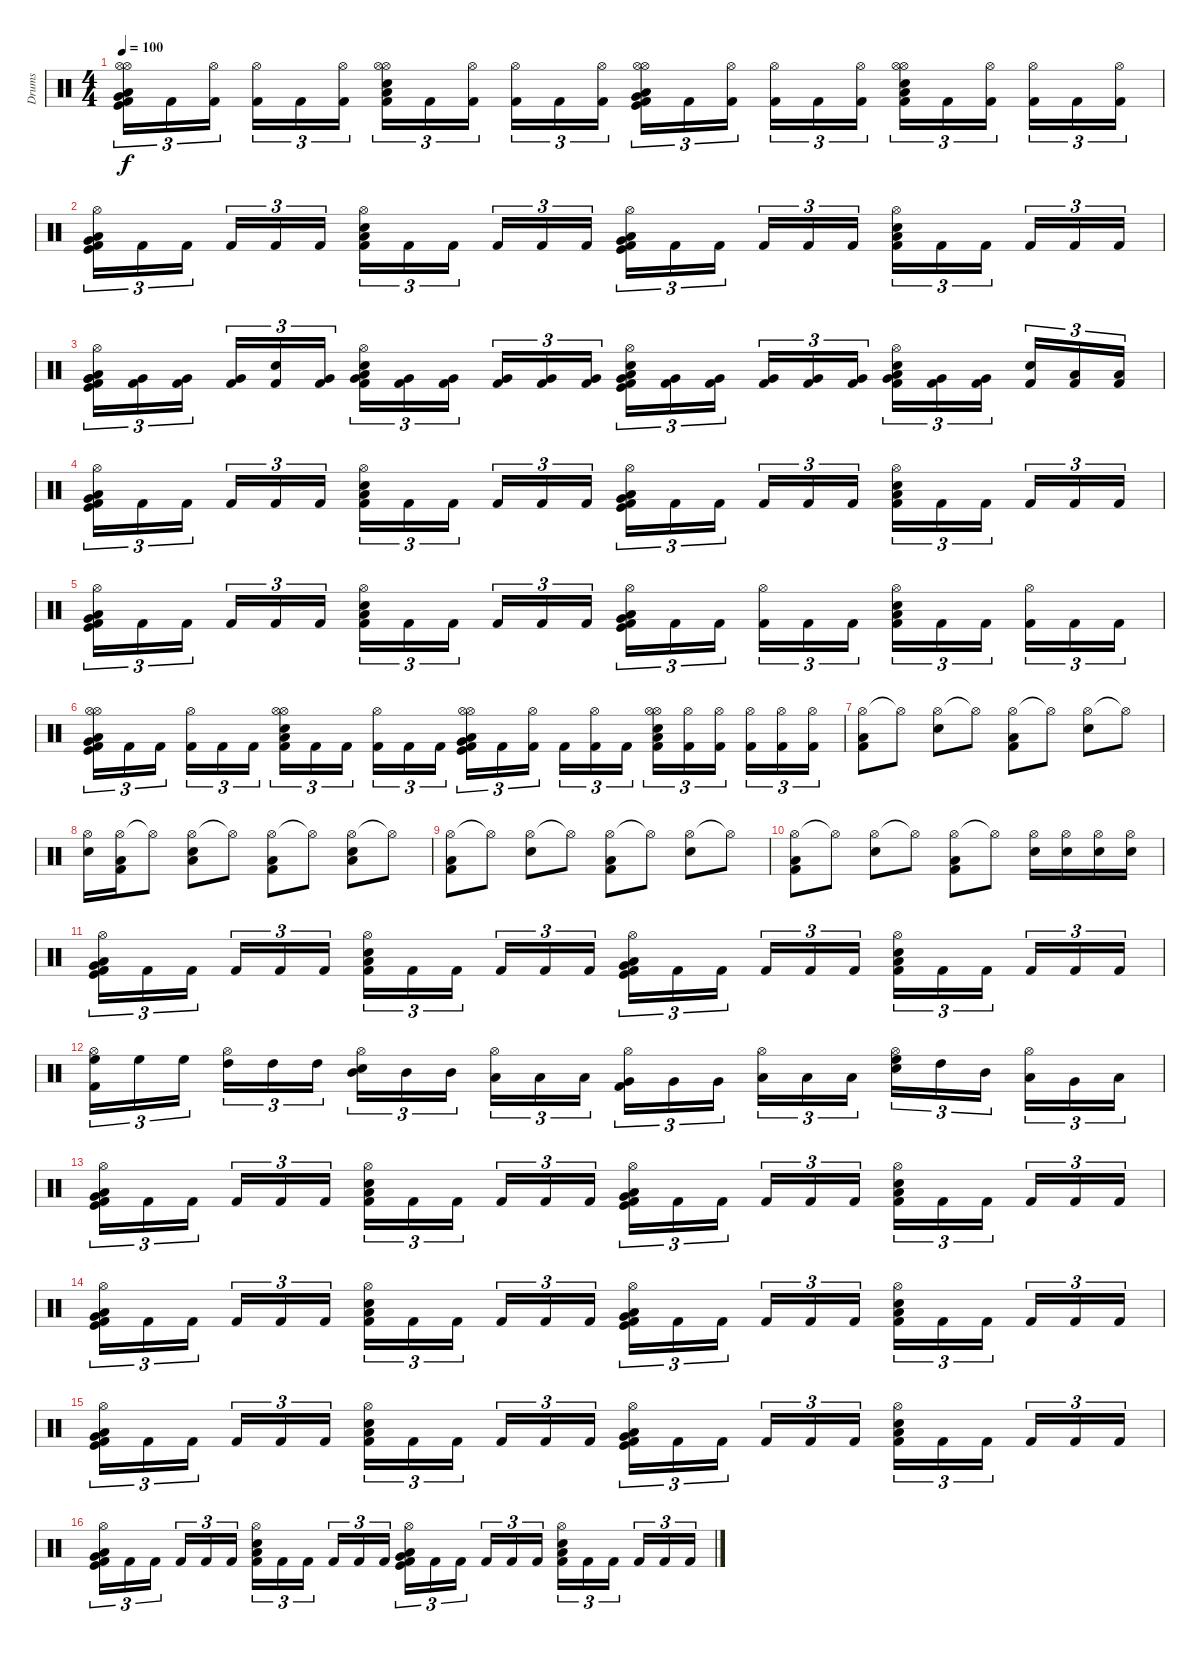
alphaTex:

\track ("Drums" "Drums") {instrument percussion}
\staff {score}
\articulation defaults
\ts (4 4)
\tempo 100
\clef neutral
\ks c
("Hi-Hat (open)" "Hi-Hat (open)" "Very Low Tom (hit)" "Low Floor Tom (hit)" "Kick (hit) 2" "Kick (hit)").16{tu (3 2) dy f volume 10} "Kick (hit) 2".16{tu (3 2)} ("Hi-Hat (open)" "Kick (hit) 2").16{tu (3 2)} ("Hi-Hat (open)" "Kick (hit) 2").16{tu (3 2)} "Kick (hit) 2".16{tu (3 2)} ("Hi-Hat (open)" "Kick (hit) 2").16{tu (3 2)} ("Hi-Hat (open)" "Hi-Hat (open)" "Snare (hit) 2" "Low Floor Tom (hit)" "Kick (hit) 2").16{tu (3 2)} "Kick (hit) 2".16{tu (3 2)} ("Hi-Hat (open)" "Kick (hit) 2").16{tu (3 2)} ("Hi-Hat (open)" "Kick (hit) 2").16{tu (3 2)} "Kick (hit) 2".16{tu (3 2)} ("Hi-Hat (open)" "Kick (hit) 2").16{tu (3 2)} ("Hi-Hat (open)" "Hi-Hat (open)" "Very Low Tom (hit)" "Low Floor Tom (hit)" "Kick (hit) 2" "Kick (hit)").16{tu (3 2)} "Kick (hit) 2".16{tu (3 2)} ("Hi-Hat (open)" "Kick (hit) 2").16{tu (3 2)} ("Hi-Hat (open)" "Kick (hit) 2").16{tu (3 2)} "Kick (hit) 2".16{tu (3 2)} ("Hi-Hat (open)" "Kick (hit) 2").16{tu (3 2)} ("Hi-Hat (open)" "Hi-Hat (open)" "Snare (hit) 2" "Low Floor Tom (hit)" "Kick (hit) 2").16{tu (3 2)} "Kick (hit) 2".16{tu (3 2)} ("Hi-Hat (open)" "Kick (hit) 2").16{tu (3 2)} ("Hi-Hat (open)" "Kick (hit) 2").16{tu (3 2)} "Kick (hit) 2".16{tu (3 2)} ("Hi-Hat (open)" "Kick (hit) 2").16{tu (3 2)} |
("Hi-Hat (open)" "Very Low Tom (hit)" "Low Floor Tom (hit)" "Kick (hit) 2" "Kick (hit)").16{tu (3 2)} "Kick (hit) 2".16{tu (3 2)} "Kick (hit) 2".16{tu (3 2)} "Kick (hit) 2".16{tu (3 2)} "Kick (hit) 2".16{tu (3 2)} "Kick (hit) 2".16{tu (3 2)} ("Hi-Hat (open)" "Snare (hit) 2" "Low Floor Tom (hit)" "Kick (hit) 2").16{tu (3 2)} "Kick (hit) 2".16{tu (3 2)} "Kick (hit) 2".16{tu (3 2)} "Kick (hit) 2".16{tu (3 2)} "Kick (hit) 2".16{tu (3 2)} "Kick (hit) 2".16{tu (3 2)} ("Hi-Hat (open)" "Very Low Tom (hit)" "Low Floor Tom (hit)" "Kick (hit) 2" "Kick (hit)").16{tu (3 2)} "Kick (hit) 2".16{tu (3 2)} "Kick (hit) 2".16{tu (3 2)} "Kick (hit) 2".16{tu (3 2)} "Kick (hit) 2".16{tu (3 2)} "Kick (hit) 2".16{tu (3 2)} ("Hi-Hat (open)" "Snare (hit) 2" "Low Floor Tom (hit)" "Kick (hit) 2").16{tu (3 2)} "Kick (hit) 2".16{tu (3 2)} "Kick (hit) 2".16{tu (3 2)} "Kick (hit) 2".16{tu (3 2)} "Kick (hit) 2".16{tu (3 2)} "Kick (hit) 2".16{tu (3 2)} |
("Very Low Tom (hit)" "Hi-Hat (open)" "Very Low Tom (hit)" "Low Floor Tom (hit)" "Kick (hit) 2" "Kick (hit)").16{tu (3 2) volume 10} ("Very Low Tom (hit)" "Kick (hit) 2").16{tu (3 2)} ("Very Low Tom (hit)" "Kick (hit) 2").16{tu (3 2)} ("Very Low Tom (hit)" "Kick (hit) 2").16{tu (3 2)} ("Electric Snare (hit)" "Kick (hit) 2").16{tu (3 2)} ("Very Low Tom (hit)" "Kick (hit) 2").16{tu (3 2)} ("Very Low Tom (hit)" "Hi-Hat (open)" "Snare (hit) 2" "Low Floor Tom (hit)" "Kick (hit) 2").16{tu (3 2)} ("Very Low Tom (hit)" "Kick (hit) 2").16{tu (3 2)} ("Very Low Tom (hit)" "Kick (hit) 2").16{tu (3 2)} ("Very Low Tom (hit)" "Kick (hit) 2").16{tu (3 2)} ("Very Low Tom (hit)" "Kick (hit) 2").16{tu (3 2)} ("Very Low Tom (hit)" "Kick (hit) 2").16{tu (3 2)} ("Electric Snare (hit)" "Hi-Hat (open)" "Very Low Tom (hit)" "Low Floor Tom (hit)" "Kick (hit) 2" "Kick (hit)").16{tu (3 2)} ("Very Low Tom (hit)" "Kick (hit) 2").16{tu (3 2)} ("Very Low Tom (hit)" "Kick (hit) 2").16{tu (3 2)} ("Very Low Tom (hit)" "Kick (hit) 2").16{tu (3 2)} ("Very Low Tom (hit)" "Kick (hit) 2").16{tu (3 2)} ("Very Low Tom (hit)" "Kick (hit) 2").16{tu (3 2)} ("Very Low Tom (hit)" "Hi-Hat (open)" "Snare (hit) 2" "Low Floor Tom (hit)" "Kick (hit) 2").16{tu (3 2)} ("Very Low Tom (hit)" "Kick (hit) 2").16{tu (3 2)} ("Very Low Tom (hit)" "Kick (hit) 2").16{tu (3 2)} ("Electric Snare (hit)" "Kick (hit) 2").16{tu (3 2)} ("Low Floor Tom (hit)" "Kick (hit) 2").16{tu (3 2)} ("Low Floor Tom (hit)" "Kick (hit) 2").16{tu (3 2)} |
("Hi-Hat (open)" "Very Low Tom (hit)" "Low Floor Tom (hit)" "Kick (hit) 2" "Kick (hit)").16{tu (3 2)} "Kick (hit) 2".16{tu (3 2)} "Kick (hit) 2".16{tu (3 2)} "Kick (hit) 2".16{tu (3 2)} "Kick (hit) 2".16{tu (3 2)} "Kick (hit) 2".16{tu (3 2)} ("Hi-Hat (open)" "Snare (hit) 2" "Low Floor Tom (hit)" "Kick (hit) 2").16{tu (3 2)} "Kick (hit) 2".16{tu (3 2)} "Kick (hit) 2".16{tu (3 2)} "Kick (hit) 2".16{tu (3 2)} "Kick (hit) 2".16{tu (3 2)} "Kick (hit) 2".16{tu (3 2)} ("Hi-Hat (open)" "Very Low Tom (hit)" "Low Floor Tom (hit)" "Kick (hit) 2" "Kick (hit)").16{tu (3 2)} "Kick (hit) 2".16{tu (3 2)} "Kick (hit) 2".16{tu (3 2)} "Kick (hit) 2".16{tu (3 2)} "Kick (hit) 2".16{tu (3 2)} "Kick (hit) 2".16{tu (3 2)} ("Hi-Hat (open)" "Snare (hit) 2" "Low Floor Tom (hit)" "Kick (hit) 2").16{tu (3 2)} "Kick (hit) 2".16{tu (3 2)} "Kick (hit) 2".16{tu (3 2)} "Kick (hit) 2".16{tu (3 2)} "Kick (hit) 2".16{tu (3 2)} "Kick (hit) 2".16{tu (3 2)} |
("Hi-Hat (open)" "Very Low Tom (hit)" "Low Floor Tom (hit)" "Kick (hit) 2" "Kick (hit)").16{tu (3 2) volume 10} "Kick (hit) 2".16{tu (3 2)} "Kick (hit) 2".16{tu (3 2)} "Kick (hit) 2".16{tu (3 2)} "Kick (hit) 2".16{tu (3 2)} "Kick (hit) 2".16{tu (3 2)} ("Hi-Hat (open)" "Snare (hit) 2" "Low Floor Tom (hit)" "Kick (hit) 2").16{tu (3 2)} "Kick (hit) 2".16{tu (3 2)} "Kick (hit) 2".16{tu (3 2)} "Kick (hit) 2".16{tu (3 2)} "Kick (hit) 2".16{tu (3 2)} "Kick (hit) 2".16{tu (3 2)} ("Hi-Hat (open)" "Very Low Tom (hit)" "Low Floor Tom (hit)" "Kick (hit) 2" "Kick (hit)").16{tu (3 2)} "Kick (hit) 2".16{tu (3 2)} "Kick (hit) 2".16{tu (3 2)} ("Hi-Hat (open)" "Kick (hit) 2").16{tu (3 2)} "Kick (hit) 2".16{tu (3 2)} "Kick (hit) 2".16{tu (3 2)} ("Hi-Hat (open)" "Snare (hit) 2" "Low Floor Tom (hit)" "Kick (hit) 2").16{tu (3 2)} "Kick (hit) 2".16{tu (3 2)} "Kick (hit) 2".16{tu (3 2)} ("Hi-Hat (open)" "Kick (hit) 2").16{tu (3 2)} "Kick (hit) 2".16{tu (3 2)} "Kick (hit) 2".16{tu (3 2)} |
("Hi-Hat (open)" "Hi-Hat (open)" "Very Low Tom (hit)" "Low Floor Tom (hit)" "Kick (hit) 2" "Kick (hit)").16{tu (3 2)} "Kick (hit) 2".16{tu (3 2)} "Kick (hit) 2".16{tu (3 2)} ("Hi-Hat (open)" "Kick (hit) 2").16{tu (3 2)} "Kick (hit) 2".16{tu (3 2)} "Kick (hit) 2".16{tu (3 2)} ("Hi-Hat (open)" "Hi-Hat (open)" "Snare (hit) 2" "Low Floor Tom (hit)" "Kick (hit) 2").16{tu (3 2)} "Kick (hit) 2".16{tu (3 2)} "Kick (hit) 2".16{tu (3 2)} ("Hi-Hat (open)" "Kick (hit) 2").16{tu (3 2)} "Kick (hit) 2".16{tu (3 2)} "Kick (hit) 2".16{tu (3 2)} ("Hi-Hat (open)" "Hi-Hat (open)" "Very Low Tom (hit)" "Low Floor Tom (hit)" "Kick (hit) 2" "Kick (hit)").16{tu (3 2)} "Kick (hit) 2".16{tu (3 2)} ("Hi-Hat (open)" "Kick (hit) 2").16{tu (3 2)} "Kick (hit) 2".16{tu (3 2)} ("Hi-Hat (open)" "Kick (hit) 2").16{tu (3 2)} "Kick (hit) 2".16{tu (3 2)} ("Hi-Hat (open)" "Hi-Hat (open)" "Snare (hit) 2" "Low Floor Tom (hit)" "Kick (hit) 2").16{tu (3 2)} ("Hi-Hat (open)" "Kick (hit) 2").16{tu (3 2)} ("Hi-Hat (open)" "Kick (hit) 2").16{tu (3 2)} ("Hi-Hat (open)" "Kick (hit) 2").16{tu (3 2)} ("Hi-Hat (open)" "Kick (hit) 2").16{tu (3 2)} ("Hi-Hat (open)" "Kick (hit) 2").16{tu (3 2)} |
("Hi-Hat (open)" "Low Floor Tom (hit)" "Kick (hit) 2").8{volume 13} "Hi-Hat (open)"{t}.8 ("Hi-Hat (open)" "Snare (hit) 2").8 "Hi-Hat (open)"{t}.8 ("Hi-Hat (open)" "Kick (hit) 2" "Low Floor Tom (hit)").8 "Hi-Hat (open)"{t}.8 ("Hi-Hat (open)" "Snare (hit) 2").8 "Hi-Hat (open)"{t}.8 |
("Hi-Hat (open)" "Snare (hit) 2").16 ("Hi-Hat (open)" "Kick (hit) 2" "Low Floor Tom (hit)").16 "Hi-Hat (open)"{t}.8 ("Hi-Hat (open)" "Snare (hit) 2" "Low Floor Tom (hit)").8 "Hi-Hat (open)"{t}.8 ("Hi-Hat (open)" "Kick (hit) 2" "Low Floor Tom (hit)").8 "Hi-Hat (open)"{t}.8 ("Hi-Hat (open)" "Snare (hit) 2" "Low Floor Tom (hit)").8 "Hi-Hat (open)"{t}.8 |
("Hi-Hat (open)" "Low Floor Tom (hit)" "Kick (hit) 2").8 "Hi-Hat (open)"{t}.8 ("Hi-Hat (open)" "Snare (hit) 2").8 "Hi-Hat (open)"{t}.8 ("Hi-Hat (open)" "Kick (hit) 2" "Low Floor Tom (hit)").8 "Hi-Hat (open)"{t}.8 ("Hi-Hat (open)" "Snare (hit) 2").8 "Hi-Hat (open)"{t}.8 |
("Hi-Hat (open)" "Low Floor Tom (hit)" "Kick (hit) 2").8 "Hi-Hat (open)"{t}.8 ("Hi-Hat (open)" "Snare (hit) 2").8 "Hi-Hat (open)"{t}.8 ("Hi-Hat (open)" "Kick (hit) 2" "Low Floor Tom (hit)").8 "Hi-Hat (open)"{t}.8 ("Hi-Hat (open)" "Snare (hit) 2").16 ("Hi-Hat (open)" "Snare (hit) 2").16 ("Hi-Hat (open)" "Snare (hit) 2").16 ("Hi-Hat (open)" "Snare (hit) 2").16 |
("Hi-Hat (open)" "Very Low Tom (hit)" "Low Floor Tom (hit)" "Kick (hit) 2" "Kick (hit)").16{tu (3 2)} "Kick (hit) 2".16{tu (3 2)} "Kick (hit) 2".16{tu (3 2)} "Kick (hit) 2".16{tu (3 2)} "Kick (hit) 2".16{tu (3 2)} "Kick (hit) 2".16{tu (3 2)} ("Hi-Hat (open)" "Snare (hit) 2" "Low Floor Tom (hit)" "Kick (hit) 2").16{tu (3 2)} "Kick (hit) 2".16{tu (3 2)} "Kick (hit) 2".16{tu (3 2)} "Kick (hit) 2".16{tu (3 2)} "Kick (hit) 2".16{tu (3 2)} "Kick (hit) 2".16{tu (3 2)} ("Hi-Hat (open)" "Very Low Tom (hit)" "Low Floor Tom (hit)" "Kick (hit) 2" "Kick (hit)").16{tu (3 2)} "Kick (hit) 2".16{tu (3 2)} "Kick (hit) 2".16{tu (3 2)} "Kick (hit) 2".16{tu (3 2)} "Kick (hit) 2".16{tu (3 2)} "Kick (hit) 2".16{tu (3 2)} ("Hi-Hat (open)" "Snare (hit) 2" "Low Floor Tom (hit)" "Kick (hit) 2").16{tu (3 2)} "Kick (hit) 2".16{tu (3 2)} "Kick (hit) 2".16{tu (3 2)} "Kick (hit) 2".16{tu (3 2)} "Kick (hit) 2".16{tu (3 2)} "Kick (hit) 2".16{tu (3 2)} |
("Hi-Hat (open)" "High Floor Tom (hit)" "Kick (hit) 2").16{tu (3 2)} "High Floor Tom (hit)".16{tu (3 2)} "High Floor Tom (hit)".16{tu (3 2)} ("Hi-Hat (open)" "High Tom (hit)").16{tu (3 2)} "High Tom (hit)".16{tu (3 2)} "High Tom (hit)".16{tu (3 2)} ("Hi-Hat (open)" "Mid Tom (hit)" "Snare (hit) 2").16{tu (3 2)} "Mid Tom (hit)".16{tu (3 2)} "Mid Tom (hit)".16{tu (3 2)} ("Hi-Hat (open)" "Low Tom (hit)").16{tu (3 2)} "Low Tom (hit)".16{tu (3 2)} "Low Tom (hit)".16{tu (3 2)} ("Hi-Hat (open)" "Very Low Tom (hit)" "Kick (hit) 2").16{tu (3 2)} "Very Low Tom (hit)".16{tu (3 2)} "Very Low Tom (hit)".16{tu (3 2)} ("Hi-Hat (open)" "Low Floor Tom (hit)").16{tu (3 2)} "Low Floor Tom (hit)".16{tu (3 2)} "Low Floor Tom (hit)".16{tu (3 2)} ("Hi-Hat (open)" "High Floor Tom (hit)" "Snare (hit) 2").16{tu (3 2)} "High Tom (hit)".16{tu (3 2)} "Mid Tom (hit)".16{tu (3 2)} ("Hi-Hat (open)" "Low Tom (hit)").16{tu (3 2)} "Very Low Tom (hit)".16{tu (3 2)} "Low Floor Tom (hit)".16{tu (3 2)} |
("Hi-Hat (open)" "Very Low Tom (hit)" "Low Floor Tom (hit)" "Kick (hit) 2" "Kick (hit)").16{tu (3 2)} "Kick (hit) 2".16{tu (3 2)} "Kick (hit) 2".16{tu (3 2)} "Kick (hit) 2".16{tu (3 2)} "Kick (hit) 2".16{tu (3 2)} "Kick (hit) 2".16{tu (3 2)} ("Hi-Hat (open)" "Snare (hit) 2" "Low Floor Tom (hit)" "Kick (hit) 2").16{tu (3 2)} "Kick (hit) 2".16{tu (3 2)} "Kick (hit) 2".16{tu (3 2)} "Kick (hit) 2".16{tu (3 2)} "Kick (hit) 2".16{tu (3 2)} "Kick (hit) 2".16{tu (3 2)} ("Hi-Hat (open)" "Very Low Tom (hit)" "Low Floor Tom (hit)" "Kick (hit) 2" "Kick (hit)").16{tu (3 2)} "Kick (hit) 2".16{tu (3 2)} "Kick (hit) 2".16{tu (3 2)} "Kick (hit) 2".16{tu (3 2)} "Kick (hit) 2".16{tu (3 2)} "Kick (hit) 2".16{tu (3 2)} ("Hi-Hat (open)" "Snare (hit) 2" "Low Floor Tom (hit)" "Kick (hit) 2").16{tu (3 2)} "Kick (hit) 2".16{tu (3 2)} "Kick (hit) 2".16{tu (3 2)} "Kick (hit) 2".16{tu (3 2)} "Kick (hit) 2".16{tu (3 2)} "Kick (hit) 2".16{tu (3 2)} |
("Hi-Hat (open)" "Very Low Tom (hit)" "Low Floor Tom (hit)" "Kick (hit) 2" "Kick (hit)").16{tu (3 2)} "Kick (hit) 2".16{tu (3 2)} "Kick (hit) 2".16{tu (3 2)} "Kick (hit) 2".16{tu (3 2)} "Kick (hit) 2".16{tu (3 2)} "Kick (hit) 2".16{tu (3 2)} ("Hi-Hat (open)" "Snare (hit) 2" "Low Floor Tom (hit)" "Kick (hit) 2").16{tu (3 2)} "Kick (hit) 2".16{tu (3 2)} "Kick (hit) 2".16{tu (3 2)} "Kick (hit) 2".16{tu (3 2)} "Kick (hit) 2".16{tu (3 2)} "Kick (hit) 2".16{tu (3 2)} ("Hi-Hat (open)" "Very Low Tom (hit)" "Low Floor Tom (hit)" "Kick (hit) 2" "Kick (hit)").16{tu (3 2)} "Kick (hit) 2".16{tu (3 2)} "Kick (hit) 2".16{tu (3 2)} "Kick (hit) 2".16{tu (3 2)} "Kick (hit) 2".16{tu (3 2)} "Kick (hit) 2".16{tu (3 2)} ("Hi-Hat (open)" "Snare (hit) 2" "Low Floor Tom (hit)" "Kick (hit) 2").16{tu (3 2)} "Kick (hit) 2".16{tu (3 2)} "Kick (hit) 2".16{tu (3 2)} "Kick (hit) 2".16{tu (3 2)} "Kick (hit) 2".16{tu (3 2)} "Kick (hit) 2".16{tu (3 2)} |
("Hi-Hat (open)" "Very Low Tom (hit)" "Low Floor Tom (hit)" "Kick (hit) 2" "Kick (hit)").16{tu (3 2)} "Kick (hit) 2".16{tu (3 2)} "Kick (hit) 2".16{tu (3 2)} "Kick (hit) 2".16{tu (3 2)} "Kick (hit) 2".16{tu (3 2)} "Kick (hit) 2".16{tu (3 2)} ("Hi-Hat (open)" "Snare (hit) 2" "Low Floor Tom (hit)" "Kick (hit) 2").16{tu (3 2)} "Kick (hit) 2".16{tu (3 2)} "Kick (hit) 2".16{tu (3 2)} "Kick (hit) 2".16{tu (3 2)} "Kick (hit) 2".16{tu (3 2)} "Kick (hit) 2".16{tu (3 2)} ("Hi-Hat (open)" "Very Low Tom (hit)" "Low Floor Tom (hit)" "Kick (hit) 2" "Kick (hit)").16{tu (3 2)} "Kick (hit) 2".16{tu (3 2)} "Kick (hit) 2".16{tu (3 2)} "Kick (hit) 2".16{tu (3 2)} "Kick (hit) 2".16{tu (3 2)} "Kick (hit) 2".16{tu (3 2)} ("Hi-Hat (open)" "Snare (hit) 2" "Low Floor Tom (hit)" "Kick (hit) 2").16{tu (3 2)} "Kick (hit) 2".16{tu (3 2)} "Kick (hit) 2".16{tu (3 2)} "Kick (hit) 2".16{tu (3 2)} "Kick (hit) 2".16{tu (3 2)} "Kick (hit) 2".16{tu (3 2)} |
("Hi-Hat (open)" "Very Low Tom (hit)" "Low Floor Tom (hit)" "Kick (hit) 2" "Kick (hit)").16{tu (3 2)} "Kick (hit) 2".16{tu (3 2)} "Kick (hit) 2".16{tu (3 2)} "Kick (hit) 2".16{tu (3 2)} "Kick (hit) 2".16{tu (3 2)} "Kick (hit) 2".16{tu (3 2)} ("Hi-Hat (open)" "Snare (hit) 2" "Low Floor Tom (hit)" "Kick (hit) 2").16{tu (3 2)} "Kick (hit) 2".16{tu (3 2)} "Kick (hit) 2".16{tu (3 2)} "Kick (hit) 2".16{tu (3 2)} "Kick (hit) 2".16{tu (3 2)} "Kick (hit) 2".16{tu (3 2)} ("Hi-Hat (open)" "Very Low Tom (hit)" "Low Floor Tom (hit)" "Kick (hit) 2" "Kick (hit)").16{tu (3 2)} "Kick (hit) 2".16{tu (3 2)} "Kick (hit) 2".16{tu (3 2)} "Kick (hit) 2".16{tu (3 2)} "Kick (hit) 2".16{tu (3 2)} "Kick (hit) 2".16{tu (3 2)} ("Hi-Hat (open)" "Snare (hit) 2" "Low Floor Tom (hit)" "Kick (hit) 2").16{tu (3 2)} "Kick (hit) 2".16{tu (3 2)} "Kick (hit) 2".16{tu (3 2)} "Kick (hit) 2".16{tu (3 2)} "Kick (hit) 2".16{tu (3 2)} "Kick (hit) 2".16{tu (3 2)}
